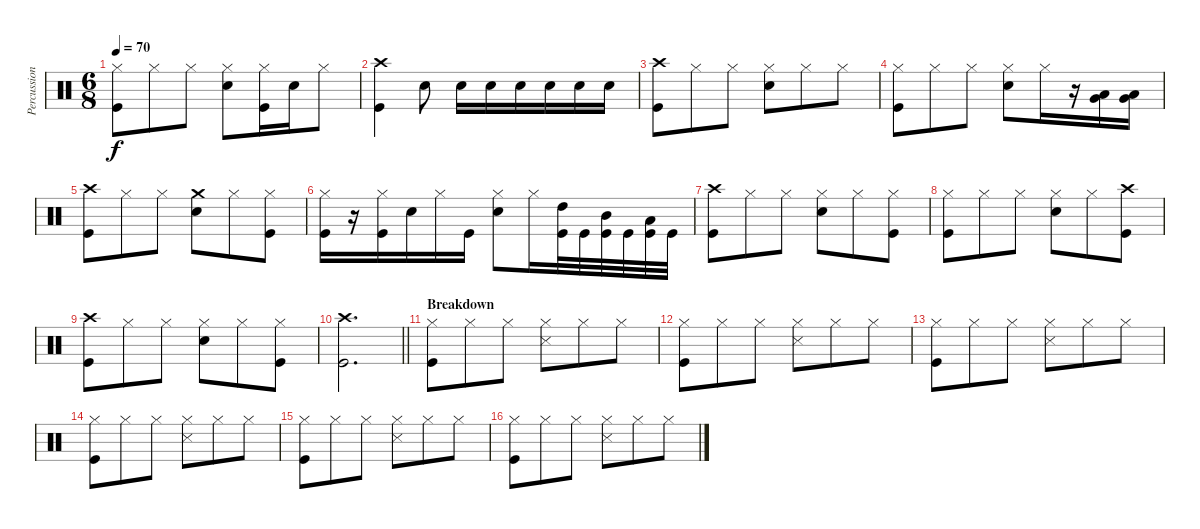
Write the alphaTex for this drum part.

\track ("Percussion" "Percussion") {instrument percussion}
\staff {score}
\articulation defaults
\ts (6 8)
\tempo 70
\clef neutral
\ks c
("Kick (hit)" "Hi-Hat (closed)").8{dy f} "Hi-Hat (closed)".8 "Hi-Hat (closed)".8 ("Electric Snare (hit)" "Hi-Hat (closed)").8 ("Kick (hit)" "Hi-Hat (closed)").16 "Electric Snare (hit)".16 "Hi-Hat (closed)".8 |
("Kick (hit)" "Crash high (hit)").4 "Electric Snare (hit)".8 "Electric Snare (hit)".16 "Electric Snare (hit)".16 "Electric Snare (hit)".16 "Electric Snare (hit)".16 "Electric Snare (hit)".16 "Electric Snare (hit)".16 |
("Kick (hit)" "Crash high (hit)").8 "Hi-Hat (closed)".8 "Hi-Hat (closed)".8 ("Electric Snare (hit)" "Hi-Hat (closed)").8 "Hi-Hat (closed)".8 "Hi-Hat (closed)".8 |
("Kick (hit)" "Hi-Hat (closed)").8 "Hi-Hat (closed)".8 "Hi-Hat (closed)".8 ("Electric Snare (hit)" "Hi-Hat (closed)").8 "Hi-Hat (closed)".16 r.16 ("Low Tom (hit)" "Very Low Tom (hit)").16 ("Low Tom (hit)" "Very Low Tom (hit)").16 |
("Kick (hit)" "Crash high (hit)").8 "Hi-Hat (closed)".8 "Hi-Hat (closed)".8 ("Electric Snare (hit)" "Crash medium (hit)").8 "Hi-Hat (closed)".8 ("Kick (hit)" "Hi-Hat (closed)").8 |
("Kick (hit)" "Hi-Hat (closed)").16 r.16 ("Kick (hit)" "Hi-Hat (closed)").16 "Electric Snare (hit)".16 "Hi-Hat (closed)".16 "Kick (hit)".16 ("Electric Snare (hit)" "Hi-Hat (closed)").8 "Hi-Hat (closed)".16 ("Kick (hit)" "High Tom (hit)").32 "Kick (hit)".32 ("Kick (hit)" "Mid Tom (hit)").32 "Kick (hit)".32 ("Kick (hit)" "Low Tom (hit)").32 "Kick (hit)".32 |
("Kick (hit)" "Crash high (hit)").8 "Hi-Hat (closed)".8 "Hi-Hat (closed)".8 ("Electric Snare (hit)" "Hi-Hat (closed)").8 "Hi-Hat (closed)".8 ("Kick (hit)" "Hi-Hat (closed)").8 |
("Kick (hit)" "Hi-Hat (closed)").8 "Hi-Hat (closed)".8 "Hi-Hat (closed)".8 ("Electric Snare (hit)" "Hi-Hat (closed)").8 "Hi-Hat (closed)".8 ("Kick (hit)" "Crash high (hit)").8 |
("Kick (hit)" "Crash high (hit)").8 "Hi-Hat (closed)".8 "Hi-Hat (closed)".8 ("Electric Snare (hit)" "Hi-Hat (closed)").8 "Hi-Hat (closed)".8 ("Kick (hit)" "Hi-Hat (closed)").8 |
\barLineRight lightlight
("Kick (hit)" "Crash high (hit)").2{d} |
\section ("" "Breakdown")
("Kick (hit)" "Hi-Hat (closed)").8 "Hi-Hat (closed)".8 "Hi-Hat (closed)".8 ("Snare (side stick) 3" "Hi-Hat (closed)").8 "Hi-Hat (closed)".8 "Hi-Hat (closed)".8 |
("Kick (hit)" "Hi-Hat (closed)").8 "Hi-Hat (closed)".8 "Hi-Hat (closed)".8 ("Snare (side stick) 3" "Hi-Hat (closed)").8 "Hi-Hat (closed)".8 "Hi-Hat (closed)".8 |
("Kick (hit)" "Hi-Hat (closed)").8 "Hi-Hat (closed)".8 "Hi-Hat (closed)".8 ("Snare (side stick) 3" "Hi-Hat (closed)").8 "Hi-Hat (closed)".8 "Hi-Hat (closed)".8 |
("Kick (hit)" "Hi-Hat (closed)").8 "Hi-Hat (closed)".8 "Hi-Hat (closed)".8 ("Snare (side stick) 3" "Hi-Hat (closed)").8 "Hi-Hat (closed)".8 "Hi-Hat (closed)".8 |
("Kick (hit)" "Hi-Hat (closed)").8 "Hi-Hat (closed)".8 "Hi-Hat (closed)".8 ("Snare (side stick) 3" "Hi-Hat (closed)").8 "Hi-Hat (closed)".8 "Hi-Hat (closed)".8 |
("Kick (hit)" "Hi-Hat (closed)").8 "Hi-Hat (closed)".8 "Hi-Hat (closed)".8 ("Snare (side stick) 3" "Hi-Hat (closed)").8 "Hi-Hat (closed)".8 "Hi-Hat (closed)".8
